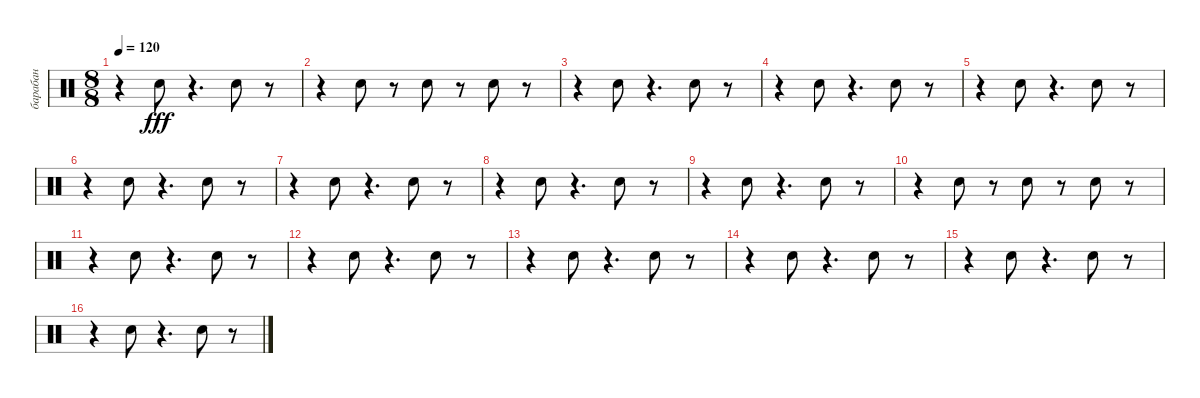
\track ("барабан" "барабан") {instrument percussion}
\staff {score}
\articulation defaults
\ts (8 8)
\tempo 120
\clef neutral
\ks c
r.4{dy fff} "Snare (hit) 2".8 r.4{d} "Snare (hit) 2".8 r.8 |
r.4 "Snare (hit) 2".8 r.8 "Snare (hit) 2".8 r.8 "Snare (hit) 2".8 r.8 |
r.4 "Snare (hit) 2".8 r.4{d} "Snare (hit) 2".8 r.8 |
r.4 "Snare (hit) 2".8 r.4{d} "Snare (hit) 2".8 r.8 |
r.4 "Snare (hit) 2".8 r.4{d} "Snare (hit) 2".8 r.8 |
r.4 "Snare (hit) 2".8 r.4{d} "Snare (hit) 2".8 r.8 |
r.4 "Snare (hit) 2".8 r.4{d} "Snare (hit) 2".8 r.8 |
r.4 "Snare (hit) 2".8 r.4{d} "Snare (hit) 2".8 r.8 |
r.4 "Snare (hit) 2".8 r.4{d} "Snare (hit) 2".8 r.8 |
r.4 "Snare (hit) 2".8 r.8 "Snare (hit) 2".8 r.8 "Snare (hit) 2".8 r.8 |
r.4 "Snare (hit) 2".8 r.4{d} "Snare (hit) 2".8 r.8 |
r.4 "Snare (hit) 2".8 r.4{d} "Snare (hit) 2".8 r.8 |
r.4 "Snare (hit) 2".8 r.4{d} "Snare (hit) 2".8 r.8 |
r.4 "Snare (hit) 2".8 r.4{d} "Snare (hit) 2".8 r.8 |
r.4 "Snare (hit) 2".8 r.4{d} "Snare (hit) 2".8 r.8 |
r.4 "Snare (hit) 2".8 r.4{d} "Snare (hit) 2".8 r.8
